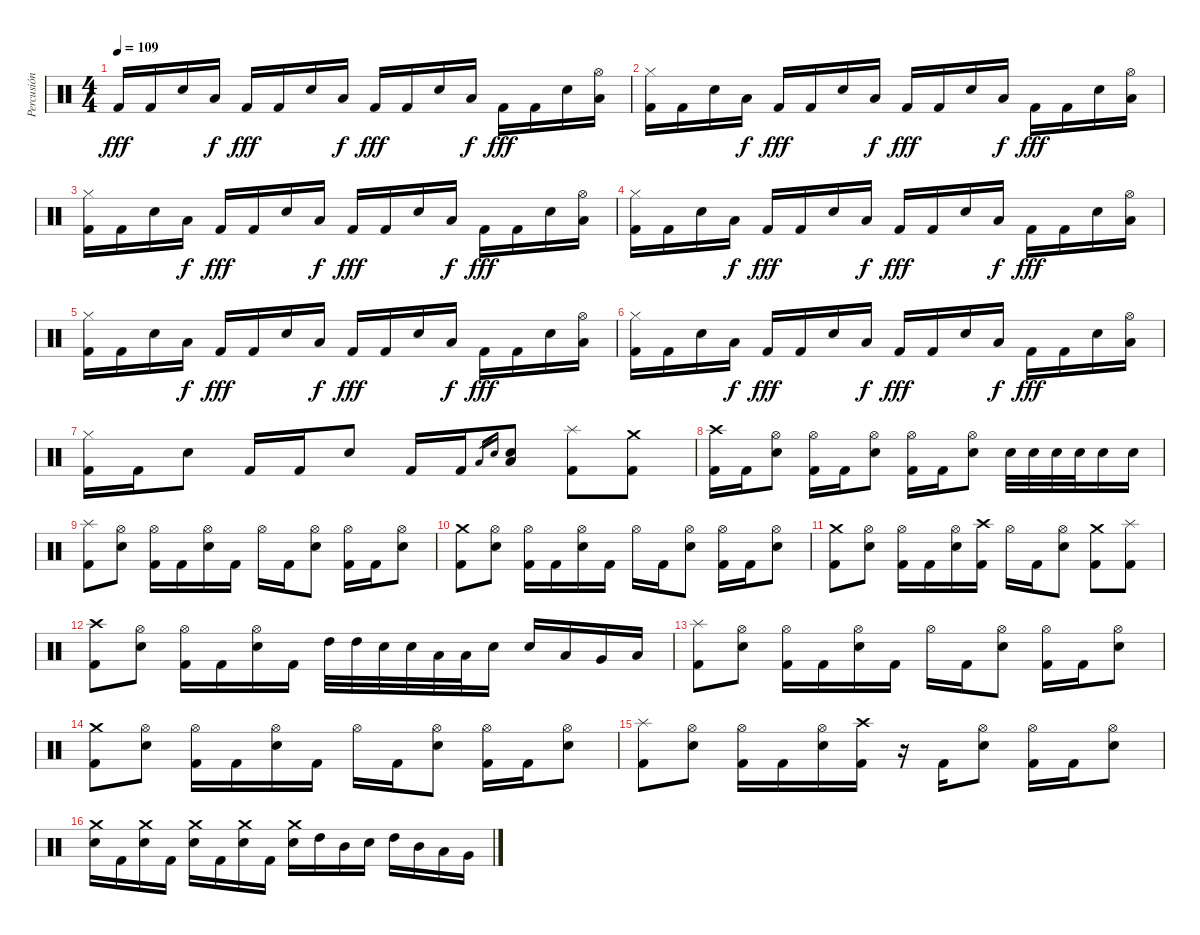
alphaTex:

\track ("Percusión" "Percusión") {instrument percussion}
\staff {score}
\articulation defaults
\ts (4 4)
\tempo 109
\clef neutral
\ks c "Kick (hit) 2".16{dy fff} "Kick (hit) 2".16 "Snare (hit) 2".16 "Low Tom (hit)".16{dy f} "Kick (hit) 2".16{dy fff} "Kick (hit) 2".16 "Snare (hit) 2".16 "Low Tom (hit)".16{dy f} "Kick (hit) 2".16{dy fff} "Kick (hit) 2".16 "Snare (hit) 2".16 "Low Tom (hit)".16{dy f} "Kick (hit) 2".16{dy fff} "Kick (hit) 2".16 "Snare (hit) 2".16
("Hi-Hat (open)" "Low Tom (hit)").16 |
("Hi-Hat (closed)" "Kick (hit) 2").16 "Kick (hit) 2".16 "Snare (hit) 2".16 "Low Tom (hit)".16{dy f} "Kick (hit) 2".16{dy fff} "Kick (hit) 2".16 "Snare (hit) 2".16 "Low Tom (hit)".16{dy f} "Kick (hit) 2".16{dy fff} "Kick (hit) 2".16 "Snare (hit) 2".16 "Low Tom (hit)".16{dy f} "Kick (hit) 2".16{dy fff} "Kick (hit) 2".16 "Snare (hit) 2".16 ("Hi-Hat (open)" "Low Tom (hit)").16 |
("Hi-Hat (closed)" "Kick (hit) 2").16 "Kick (hit) 2".16 "Snare (hit) 2".16 "Low Tom (hit)".16{dy f} "Kick (hit) 2".16{dy fff} "Kick (hit) 2".16 "Snare (hit) 2".16 "Low Tom (hit)".16{dy f} "Kick (hit) 2".16{dy fff} "Kick (hit) 2".16 "Snare (hit) 2".16 "Low Tom (hit)".16{dy f} "Kick (hit) 2".16{dy fff} "Kick (hit) 2".16 "Snare (hit) 2".16 ("Hi-Hat (open)" "Low Tom (hit)").16 |
("Hi-Hat (closed)" "Kick (hit) 2").16 "Kick (hit) 2".16 "Snare (hit) 2".16 "Low Tom (hit)".16{dy f} "Kick (hit) 2".16{dy fff} "Kick (hit) 2".16 "Snare (hit) 2".16 "Low Tom (hit)".16{dy f} "Kick (hit) 2".16{dy fff} "Kick (hit) 2".16 "Snare (hit) 2".16 "Low Tom (hit)".16{dy f} "Kick (hit) 2".16{dy fff} "Kick (hit) 2".16 "Snare (hit) 2".16 ("Hi-Hat (open)" "Low Tom (hit)").16 |
("Hi-Hat (closed)" "Kick (hit) 2").16 "Kick (hit) 2".16 "Snare (hit) 2".16 "Low Tom (hit)".16{dy f} "Kick (hit) 2".16{dy fff} "Kick (hit) 2".16 "Snare (hit) 2".16 "Low Tom (hit)".16{dy f} "Kick (hit) 2".16{dy fff} "Kick (hit) 2".16 "Snare (hit) 2".16 "Low Tom (hit)".16{dy f} "Kick (hit) 2".16{dy fff} "Kick (hit) 2".16 "Snare (hit) 2".16 ("Hi-Hat (open)" "Low Tom (hit)").16 |
("Hi-Hat (closed)" "Kick (hit) 2").16 "Kick (hit) 2".16 "Snare (hit) 2".16 "Low Tom (hit)".16{dy f} "Kick (hit) 2".16{dy fff} "Kick (hit) 2".16 "Snare (hit) 2".16 "Low Tom (hit)".16{dy f} "Kick (hit) 2".16{dy fff} "Kick (hit) 2".16 "Snare (hit) 2".16 "Low Tom (hit)".16{dy f} "Kick (hit) 2".16{dy fff} "Kick (hit) 2".16 "Snare (hit) 2".16 ("Hi-Hat (open)" "Low Tom (hit)").16 |
("Hi-Hat (closed)" "Kick (hit) 2").16 "Kick (hit) 2".16 "Snare (hit) 2".8 "Kick (hit) 2".16 "Kick (hit) 2".16 "Snare (hit) 2".8 "Kick (hit) 2".16 "Kick (hit) 2".16 "Low Tom (hit)".16{gr} "Snare (hit) 2".16{gr} ("Low Tom (hit)" "Snare (hit) 2").8 ("Splash (hit)" "Kick (hit) 2").8 ("Crash medium (hit)" "Kick (hit) 2").8 |
("Crash high (hit)" "Kick (hit) 2").16 "Kick (hit) 2".16 ("Hi-Hat (open)" "Snare (hit) 2").8 ("Hi-Hat (open)" "Kick (hit) 2").16 "Kick (hit) 2".16 ("Hi-Hat (open)" "Snare (hit) 2").8 ("Hi-Hat (open)" "Kick (hit) 2").16 "Kick (hit) 2".16 ("Hi-Hat (open)" "Snare (hit) 2").8 "Snare (hit) 2".32 "Snare (hit) 2".32 "Snare (hit) 2".32 "Snare (hit) 2".32 "Snare (hit) 2".16 "Snare (hit) 2".16 |
("Splash (hit)" "Kick (hit) 2").8 ("Hi-Hat (open)" "Snare (hit) 2").8 ("Hi-Hat (open)" "Kick (hit) 2").16 "Kick (hit) 2".16 ("Hi-Hat (open)" "Snare (hit) 2").16 "Kick (hit) 2".16 "Hi-Hat (open)".16 "Kick (hit) 2".16 ("Hi-Hat (open)" "Snare (hit) 2").8 ("Hi-Hat (open)" "Kick (hit) 2").16 "Kick (hit) 2".16 ("Hi-Hat (open)" "Snare (hit) 2").8 |
("Crash medium (hit)" "Kick (hit) 2").8 ("Hi-Hat (open)" "Snare (hit) 2").8 ("Hi-Hat (open)" "Kick (hit) 2").16 "Kick (hit) 2".16 ("Hi-Hat (open)" "Snare (hit) 2").16 "Kick (hit) 2".16 "Hi-Hat (open)".16 "Kick (hit) 2".16 ("Hi-Hat (open)" "Snare (hit) 2").8 ("Hi-Hat (open)" "Kick (hit) 2").16 "Kick (hit) 2".16 ("Hi-Hat (open)" "Snare (hit) 2").8 |
("Crash medium (hit)" "Kick (hit) 2").8 ("Hi-Hat (open)" "Snare (hit) 2").8 ("Hi-Hat (open)" "Kick (hit) 2").16 "Kick (hit) 2".16 ("Hi-Hat (open)" "Snare (hit) 2").16 ("Crash high (hit)" "Kick (hit) 2").16 "Hi-Hat (open)".16 "Kick (hit) 2".16 ("Hi-Hat (open)" "Snare (hit) 2").8 ("Crash medium (hit)" "Kick (hit) 2").8 ("Splash (hit)" "Kick (hit) 2").8 |
("Crash high (hit)" "Kick (hit) 2").8 ("Hi-Hat (open)" "Snare (hit) 2").8 ("Hi-Hat (open)" "Kick (hit) 2").16 "Kick (hit) 2".16 ("Hi-Hat (open)" "Snare (hit) 2").16 "Kick (hit) 2".16 "High Tom (hit)".32 "High Tom (hit)".32 "Snare (hit) 2".32 "Snare (hit) 2".32 "Low Tom (hit)".32 "Low Tom (hit)".32 "Snare (hit) 2".16 "Snare (hit) 2".16 "Low Tom (hit)".16 "Very Low Tom (hit)".16 "Low Floor Tom (hit)".16 |
("Splash (hit)" "Kick (hit) 2").8 ("Hi-Hat (open)" "Snare (hit) 2").8 ("Hi-Hat (open)" "Kick (hit) 2").16 "Kick (hit) 2".16 ("Hi-Hat (open)" "Snare (hit) 2").16 "Kick (hit) 2".16 "Hi-Hat (open)".16 "Kick (hit) 2".16 ("Hi-Hat (open)" "Snare (hit) 2").8 ("Hi-Hat (open)" "Kick (hit) 2").16 "Kick (hit) 2".16 ("Hi-Hat (open)" "Snare (hit) 2").8 |
("Crash medium (hit)" "Kick (hit) 2").8 ("Hi-Hat (open)" "Snare (hit) 2").8 ("Hi-Hat (open)" "Kick (hit) 2").16 "Kick (hit) 2".16 ("Hi-Hat (open)" "Snare (hit) 2").16 "Kick (hit) 2".16 "Hi-Hat (open)".16 "Kick (hit) 2".16 ("Hi-Hat (open)" "Snare (hit) 2").8 ("Hi-Hat (open)" "Kick (hit) 2").16 "Kick (hit) 2".16 ("Hi-Hat (open)" "Snare (hit) 2").8 |
("Splash (hit)" "Kick (hit) 2").8 ("Hi-Hat (open)" "Snare (hit) 2").8 ("Hi-Hat (open)" "Kick (hit) 2").16 "Kick (hit) 2".16 ("Hi-Hat (open)" "Snare (hit) 2").16 ("Crash high (hit)" "Kick (hit) 2").16 r.16 "Kick (hit) 2".16 ("Hi-Hat (open)" "Snare (hit) 2").8 ("Hi-Hat (open)" "Kick (hit) 2").16 "Kick (hit) 2".16 ("Hi-Hat (open)" "Snare (hit) 2").8 |
("Crash medium (hit)" "Snare (hit) 2").16 "Kick (hit) 2".16 ("Crash medium (hit)" "Snare (hit) 2").16 "Kick (hit) 2".16 ("Crash medium (hit)" "Snare (hit) 2").16 "Kick (hit) 2".16 ("Crash medium (hit)" "Snare (hit) 2").16 "Kick (hit) 2".16 ("Crash medium (hit)" "Snare (hit) 2").16 "High Tom (hit)".16 "Mid Tom (hit)".16 "Snare (hit) 2".16 "High Tom (hit)".16 "Mid Tom (hit)".16 "Low Tom (hit)".16 "Very Low Tom (hit)".16
